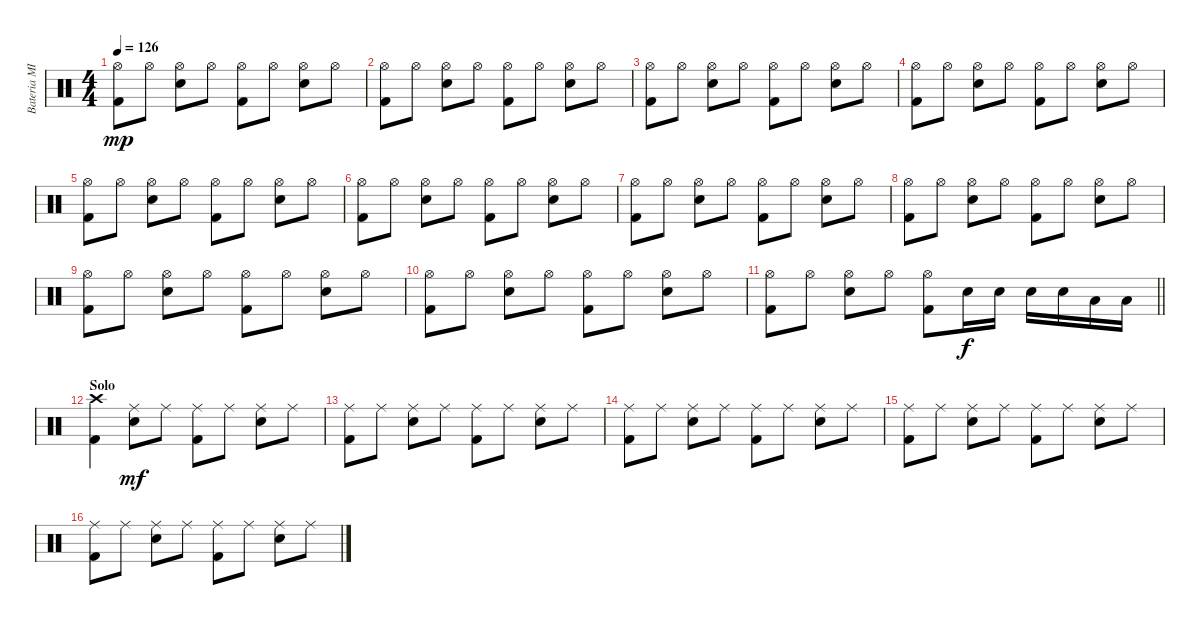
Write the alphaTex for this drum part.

\track ("Bateria MIDI" "Bateria MI") {instrument percussion}
\staff {score}
\articulation defaults
\ts (4 4)
\tempo 126
\clef neutral
\ks c
("Hi-Hat (open)" "Kick (hit) 2").8{dy mp} "Hi-Hat (open)".8 ("Hi-Hat (open)" "Snare (hit) 2").8 "Hi-Hat (open)".8 ("Hi-Hat (open)" "Kick (hit) 2").8 "Hi-Hat (open)".8 ("Hi-Hat (open)" "Snare (hit) 2").8 "Hi-Hat (open)".8 |
("Hi-Hat (open)" "Kick (hit) 2").8 "Hi-Hat (open)".8 ("Hi-Hat (open)" "Snare (hit) 2").8 "Hi-Hat (open)".8 ("Hi-Hat (open)" "Kick (hit) 2").8 "Hi-Hat (open)".8 ("Hi-Hat (open)" "Snare (hit) 2").8 "Hi-Hat (open)".8 |
("Hi-Hat (open)" "Kick (hit) 2").8 "Hi-Hat (open)".8 ("Hi-Hat (open)" "Snare (hit) 2").8 "Hi-Hat (open)".8 ("Hi-Hat (open)" "Kick (hit) 2").8 "Hi-Hat (open)".8 ("Hi-Hat (open)" "Snare (hit) 2").8 "Hi-Hat (open)".8 |
("Hi-Hat (open)" "Kick (hit) 2").8 "Hi-Hat (open)".8 ("Hi-Hat (open)" "Snare (hit) 2").8 "Hi-Hat (open)".8 ("Hi-Hat (open)" "Kick (hit) 2").8 "Hi-Hat (open)".8 ("Hi-Hat (open)" "Snare (hit) 2").8 "Hi-Hat (open)".8 |
("Hi-Hat (open)" "Kick (hit) 2").8 "Hi-Hat (open)".8 ("Hi-Hat (open)" "Snare (hit) 2").8 "Hi-Hat (open)".8 ("Hi-Hat (open)" "Kick (hit) 2").8 "Hi-Hat (open)".8 ("Hi-Hat (open)" "Snare (hit) 2").8 "Hi-Hat (open)".8 |
("Hi-Hat (open)" "Kick (hit) 2").8 "Hi-Hat (open)".8 ("Hi-Hat (open)" "Snare (hit) 2").8 "Hi-Hat (open)".8 ("Hi-Hat (open)" "Kick (hit) 2").8 "Hi-Hat (open)".8 ("Hi-Hat (open)" "Snare (hit) 2").8 "Hi-Hat (open)".8 |
("Hi-Hat (open)" "Kick (hit) 2").8 "Hi-Hat (open)".8 ("Hi-Hat (open)" "Snare (hit) 2").8 "Hi-Hat (open)".8 ("Hi-Hat (open)" "Kick (hit) 2").8 "Hi-Hat (open)".8 ("Hi-Hat (open)" "Snare (hit) 2").8 "Hi-Hat (open)".8 |
("Hi-Hat (open)" "Kick (hit) 2").8 "Hi-Hat (open)".8 ("Hi-Hat (open)" "Snare (hit) 2").8 "Hi-Hat (open)".8 ("Hi-Hat (open)" "Kick (hit) 2").8 "Hi-Hat (open)".8 ("Hi-Hat (open)" "Snare (hit) 2").8 "Hi-Hat (open)".8 |
("Hi-Hat (open)" "Kick (hit) 2").8 "Hi-Hat (open)".8 ("Hi-Hat (open)" "Snare (hit) 2").8 "Hi-Hat (open)".8 ("Hi-Hat (open)" "Kick (hit) 2").8 "Hi-Hat (open)".8 ("Hi-Hat (open)" "Snare (hit) 2").8 "Hi-Hat (open)".8 |
("Hi-Hat (open)" "Kick (hit) 2").8 "Hi-Hat (open)".8 ("Hi-Hat (open)" "Snare (hit) 2").8 "Hi-Hat (open)".8 ("Hi-Hat (open)" "Kick (hit) 2").8 "Hi-Hat (open)".8 ("Hi-Hat (open)" "Snare (hit) 2").8 "Hi-Hat (open)".8 |
\barLineRight lightlight
("Hi-Hat (open)" "Kick (hit) 2").8 "Hi-Hat (open)".8 ("Hi-Hat (open)" "Snare (hit) 2").8 "Hi-Hat (open)".8 ("Hi-Hat (open)" "Kick (hit) 2").8 "Snare (hit) 2".16{dy f} "Snare (hit) 2".16 "Snare (hit) 2".16 "Snare (hit) 2".16 "Low Tom (hit)".16 "Low Tom (hit)".16 |
\section ("" "Solo")
("Crash high (hit)" "Kick (hit) 2").4 ("Ride (middle)" "Snare (hit) 2").8{dy mf} "Ride (middle)".8 ("Ride (middle)" "Kick (hit) 2").8 "Ride (middle)".8 ("Ride (middle)" "Snare (hit) 2").8 "Ride (middle)".8 |
("Ride (middle)" "Kick (hit) 2").8 "Ride (middle)".8 ("Ride (middle)" "Snare (hit) 2").8 "Ride (middle)".8 ("Ride (middle)" "Kick (hit) 2").8 "Ride (middle)".8 ("Ride (middle)" "Snare (hit) 2").8 "Ride (middle)".8 |
("Ride (middle)" "Kick (hit) 2").8 "Ride (middle)".8 ("Ride (middle)" "Snare (hit) 2").8 "Ride (middle)".8 ("Ride (middle)" "Kick (hit) 2").8 "Ride (middle)".8 ("Ride (middle)" "Snare (hit) 2").8 "Ride (middle)".8 |
("Ride (middle)" "Kick (hit) 2").8 "Ride (middle)".8 ("Ride (middle)" "Snare (hit) 2").8 "Ride (middle)".8 ("Ride (middle)" "Kick (hit) 2").8 "Ride (middle)".8 ("Ride (middle)" "Snare (hit) 2").8 "Ride (middle)".8 |
("Ride (middle)" "Kick (hit) 2").8 "Ride (middle)".8 ("Ride (middle)" "Snare (hit) 2").8 "Ride (middle)".8 ("Ride (middle)" "Kick (hit) 2").8 "Ride (middle)".8 ("Ride (middle)" "Snare (hit) 2").8 "Ride (middle)".8
